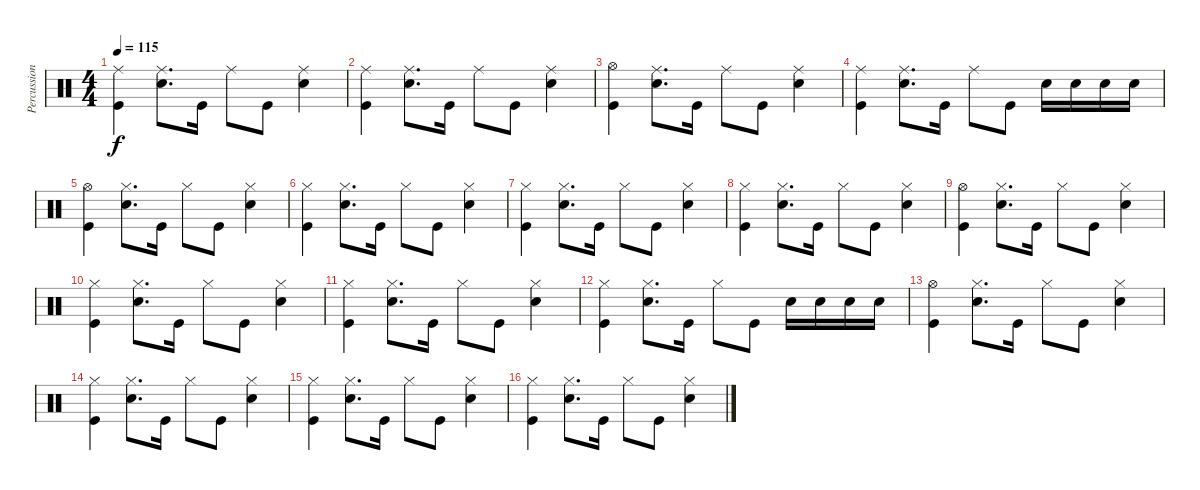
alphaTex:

\track ("Percussion 1" "Percussion") {instrument percussion}
\staff {score}
\articulation defaults
\ts (4 4)
\tempo 115
\clef neutral
\ks c
("Ride (middle)" "Kick (hit)").4{dy f} ("Ride (middle)" "Snare (hit) 2").8{d} "Kick (hit)".16 "Ride (middle)".8 "Kick (hit)".8 ("Ride (middle)" "Snare (hit) 2").4 |
("Ride (middle)" "Kick (hit)").4 ("Ride (middle)" "Snare (hit) 2").8{d} "Kick (hit)".16 "Ride (middle)".8 "Kick (hit)".8 ("Ride (middle)" "Snare (hit) 2").4 |
("Hi-Hat (open)" "Kick (hit)").4 ("Ride (middle)" "Snare (hit) 2").8{d} "Kick (hit)".16 "Ride (middle)".8 "Kick (hit)".8 ("Ride (middle)" "Snare (hit) 2").4 |
("Ride (middle)" "Kick (hit)").4 ("Ride (middle)" "Snare (hit) 2").8{d} "Kick (hit)".16 "Ride (middle)".8 "Kick (hit)".8 "Snare (hit) 2".16 "Snare (hit) 2".16 "Snare (hit) 2".16 "Snare (hit) 2".16 |
("Hi-Hat (open)" "Kick (hit)").4 ("Hi-Hat (closed)" "Snare (hit) 2").8{d} "Kick (hit)".16 "Hi-Hat (closed)".8 "Kick (hit)".8 ("Hi-Hat (closed)" "Snare (hit) 2").4 |
("Kick (hit)" "Hi-Hat (closed)").4 ("Hi-Hat (closed)" "Snare (hit) 2").8{d} "Kick (hit)".16 "Hi-Hat (closed)".8 "Kick (hit)".8 ("Hi-Hat (closed)" "Snare (hit) 2").4 |
("Kick (hit)" "Hi-Hat (closed)").4 ("Hi-Hat (closed)" "Snare (hit) 2").8{d} "Kick (hit)".16 "Hi-Hat (closed)".8 "Kick (hit)".8 ("Hi-Hat (closed)" "Snare (hit) 2").4 |
("Kick (hit)" "Hi-Hat (closed)").4 ("Hi-Hat (closed)" "Snare (hit) 2").8{d} "Kick (hit)".16 "Hi-Hat (closed)".8 "Kick (hit)".8 ("Hi-Hat (closed)" "Snare (hit) 2").4 |
("Hi-Hat (open)" "Kick (hit)").4 ("Hi-Hat (closed)" "Snare (hit) 2").8{d} "Kick (hit)".16 "Hi-Hat (closed)".8 "Kick (hit)".8 ("Hi-Hat (closed)" "Snare (hit) 2").4 |
("Kick (hit)" "Hi-Hat (closed)").4 ("Hi-Hat (closed)" "Snare (hit) 2").8{d} "Kick (hit)".16 "Hi-Hat (closed)".8 "Kick (hit)".8 ("Hi-Hat (closed)" "Snare (hit) 2").4 |
("Kick (hit)" "Hi-Hat (closed)").4 ("Hi-Hat (closed)" "Snare (hit) 2").8{d} "Kick (hit)".16 "Hi-Hat (closed)".8 "Kick (hit)".8 ("Hi-Hat (closed)" "Snare (hit) 2").4 |
("Kick (hit)" "Hi-Hat (closed)").4 ("Hi-Hat (closed)" "Snare (hit) 2").8{d} "Kick (hit)".16 "Hi-Hat (closed)".8 "Kick (hit)".8 "Snare (hit) 2".16 "Snare (hit) 2".16 "Snare (hit) 2".16 "Snare (hit) 2".16 |
("Hi-Hat (open)" "Kick (hit)").4 ("Hi-Hat (closed)" "Snare (hit) 2").8{d} "Kick (hit)".16 "Hi-Hat (closed)".8 "Kick (hit)".8 ("Hi-Hat (closed)" "Snare (hit) 2").4 |
("Kick (hit)" "Hi-Hat (closed)").4 ("Hi-Hat (closed)" "Snare (hit) 2").8{d} "Kick (hit)".16 "Hi-Hat (closed)".8 "Kick (hit)".8 ("Hi-Hat (closed)" "Snare (hit) 2").4 |
("Kick (hit)" "Hi-Hat (closed)").4 ("Hi-Hat (closed)" "Snare (hit) 2").8{d} "Kick (hit)".16 "Hi-Hat (closed)".8 "Kick (hit)".8 ("Hi-Hat (closed)" "Snare (hit) 2").4 |
("Kick (hit)" "Hi-Hat (closed)").4 ("Hi-Hat (closed)" "Snare (hit) 2").8{d} "Kick (hit)".16 "Hi-Hat (closed)".8 "Kick (hit)".8 ("Hi-Hat (closed)" "Snare (hit) 2").4
